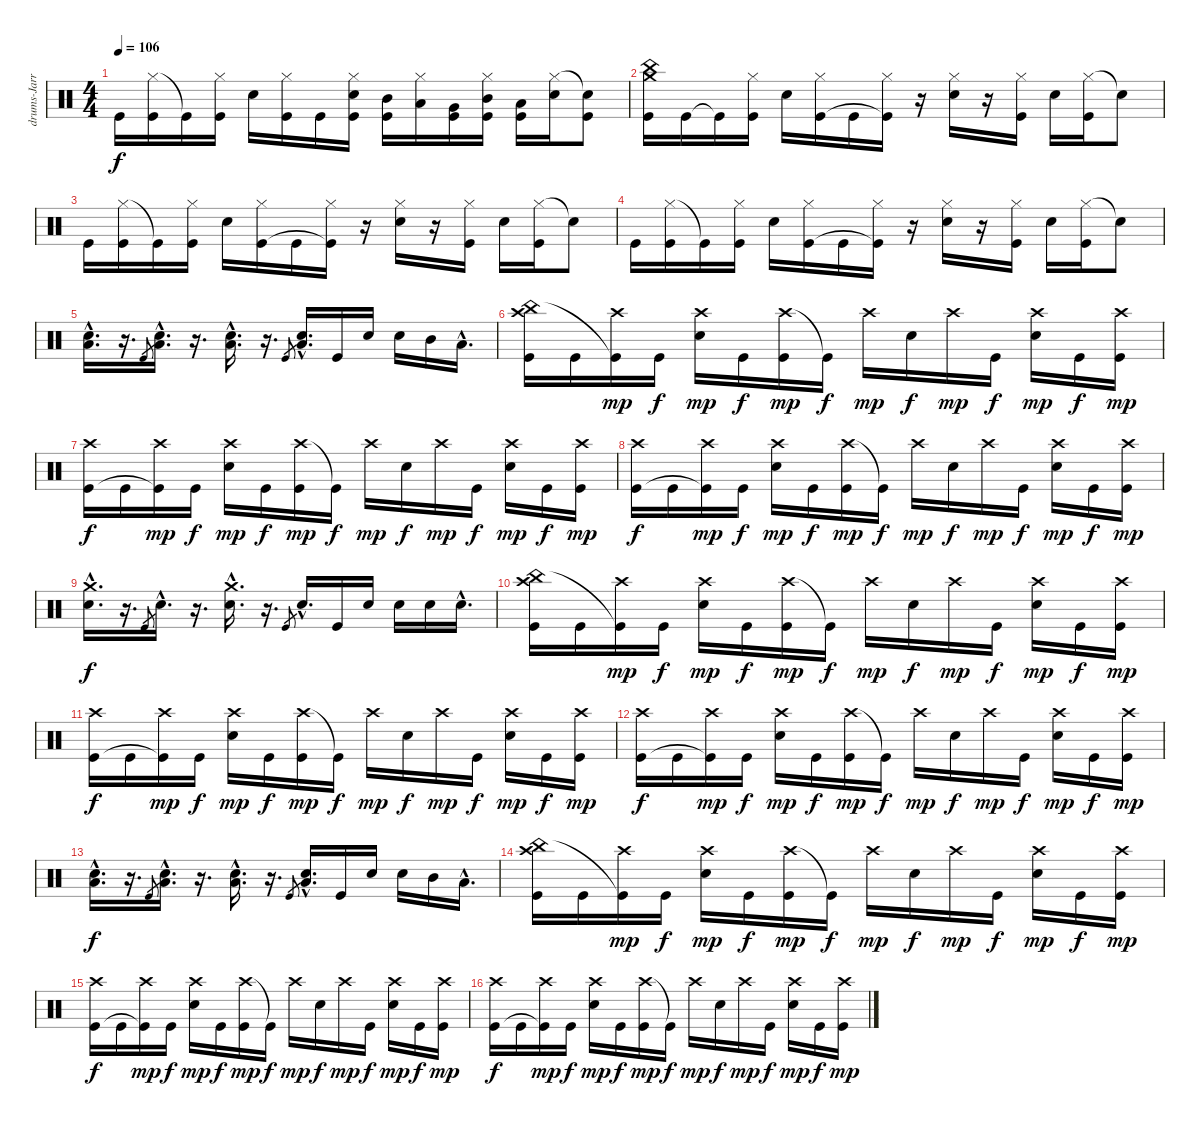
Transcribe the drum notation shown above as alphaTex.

\track ("drums-Jarrod Montague" "drums-Jarr") {instrument percussion}
\staff {score}
\articulation defaults
\ts (4 4)
\tempo 106
\clef neutral
\ks c "Kick (hit)".16{dy f}
("Hi-Hat (closed)" "Kick (hit)").16 "Kick (hit)"{t}.16 ("Hi-Hat (closed)" "Kick (hit)").16 "Snare (hit) 2".16 ("Hi-Hat (closed)" "Kick (hit)").16 "Kick (hit)".16 ("Hi-Hat (closed)" "Snare (hit) 2" "Kick (hit)"{t}).16 ("Mid Tom (hit)" "Kick (hit)").16 ("Hi-Hat (closed)" "Low Tom (hit)").16 ("Very Low Tom (hit)" "Kick (hit)").16 ("Hi-Hat (closed)" "Mid Tom (hit)" "Kick (hit)").16 ("Low Tom (hit)" "Kick (hit)").16 ("Hi-Hat (closed)" "Snare (hit) 2").16 ("Snare (hit)"{t} "Kick (hit)").8 |
("Crash medium (hit)" "China (hit)" "Kick (hit)").16 "Kick (hit)".16 "Kick (hit)"{t}.16 ("Hi-Hat (closed)" "Kick (hit)").16 "Snare (hit) 2".16 ("Hi-Hat (closed)" "Kick (hit)").16 "Kick (hit)".16 ("Hi-Hat (closed)" "Kick (hit)"{t}).16 r.16 ("Hi-Hat (closed)" "Snare (hit) 2").16 r.16 ("Hi-Hat (closed)" "Kick (hit)").16 "Snare (hit) 2".16 ("Hi-Hat (closed)" "Kick (hit)").16 "Snare (hit)"{t}.8 |
"Kick (hit)".16 ("Hi-Hat (closed)" "Kick (hit)").16 "Kick (hit)"{t}.16 ("Hi-Hat (closed)" "Kick (hit)").16 "Snare (hit) 2".16 ("Hi-Hat (closed)" "Kick (hit)").16 "Kick (hit)".16 ("Hi-Hat (closed)" "Kick (hit)"{t}).16 r.16 ("Hi-Hat (closed)" "Snare (hit) 2").16 r.16 ("Hi-Hat (closed)" "Kick (hit)").16 "Snare (hit) 2".16 ("Hi-Hat (closed)" "Kick (hit)").16 "Snare (hit)"{t}.8 |
"Kick (hit)".16 ("Hi-Hat (closed)" "Kick (hit)").16 "Kick (hit)"{t}.16 ("Hi-Hat (closed)" "Kick (hit)").16 "Snare (hit) 2".16 ("Hi-Hat (closed)" "Kick (hit)").16 "Kick (hit)".16 ("Hi-Hat (closed)" "Kick (hit)"{t}).16 r.16 ("Hi-Hat (closed)" "Snare (hit) 2").16 r.16 ("Hi-Hat (closed)" "Kick (hit)").16 "Snare (hit) 2".16 ("Hi-Hat (closed)" "Kick (hit)").16 "Snare (hit)"{t}.8 |
("Snare (hit) 2"{hac} "Low Floor Tom (hit)"{hac}).16{d} r.16{d} "Kick (hit)".8{gr} ("Snare (hit) 2"{hac} "Low Floor Tom (hit)"{hac}).16{d} r.16{d} ("Snare (hit) 2"{hac} "Low Floor Tom (hit)"{hac}).16{d} r.16{d} "Kick (hit)".8{gr} ("Snare (hit) 2"{hac} "Low Floor Tom (hit)"{hac}).16{d} "Kick (hit)".16 "Snare (hit) 2".16 "Snare (hit) 2".16 "Mid Tom (hit)".16 "Low Tom (hit)"{hac}.16{d} |
("Crash high (hit)" "China (hit)" "Kick (hit)").16 "Kick (hit)".16 ("Crash high (hit)" "Kick (hit)"{t}).16{dy mp} "Kick (hit)".16{dy f} ("Crash high (hit)" "Snare (hit) 2").16{dy mp} "Kick (hit)".16{dy f} ("Crash high (hit)" "Kick (hit)").16{dy mp} "Kick (hit)"{t}.16{dy f} "Crash high (hit)".16{dy mp} "Snare (hit) 2".16{dy f} "Crash high (hit)".16{dy mp} "Kick (hit)".16{dy f} ("Crash high (hit)" "Snare (hit) 2").16{dy mp} "Kick (hit)".16{dy f} ("Crash high (hit)" "Kick (hit)").16{dy mp} |
("Crash high (hit)" "Kick (hit)").16{dy f} "Kick (hit)".16 ("Crash high (hit)" "Kick (hit)"{t}).16{dy mp} "Kick (hit)".16{dy f} ("Crash high (hit)" "Snare (hit) 2").16{dy mp} "Kick (hit)".16{dy f} ("Crash high (hit)" "Kick (hit)").16{dy mp} "Kick (hit)"{t}.16{dy f} "Crash high (hit)".16{dy mp} "Snare (hit) 2".16{dy f} "Crash high (hit)".16{dy mp} "Kick (hit)".16{dy f} ("Crash high (hit)" "Snare (hit) 2").16{dy mp} "Kick (hit)".16{dy f} ("Crash high (hit)" "Kick (hit)").16{dy mp} |
("Crash high (hit)" "Kick (hit)").16{dy f} "Kick (hit)".16 ("Crash high (hit)" "Kick (hit)"{t}).16{dy mp} "Kick (hit)".16{dy f} ("Crash high (hit)" "Snare (hit) 2").16{dy mp} "Kick (hit)".16{dy f} ("Crash high (hit)" "Kick (hit)").16{dy mp} "Kick (hit)"{t}.16{dy f} "Crash high (hit)".16{dy mp} "Snare (hit) 2".16{dy f} "Crash high (hit)".16{dy mp} "Kick (hit)".16{dy f} ("Crash high (hit)" "Snare (hit) 2").16{dy mp} "Kick (hit)".16{dy f} ("Crash high (hit)" "Kick (hit)").16{dy mp} |
("Crash medium (hit)"{hac} "Snare (hit) 2"{hac}).16{d dy f} r.16{d} "Kick (hit)".8{gr} "Snare (hit) 2"{hac}.16{d} r.16{d} ("Crash medium (hit)"{hac} "Snare (hit) 2"{hac}).16{d} r.16{d} "Kick (hit)".8{gr} "Snare (hit) 2"{hac}.16{d} "Kick (hit)".16 "Snare (hit) 2".16 "Snare (hit) 2".16 "Snare (hit) 2".16 "Snare (hit) 2"{hac}.16{d} |
("Crash high (hit)" "China (hit)" "Kick (hit)").16 "Kick (hit)".16 ("Crash high (hit)" "Kick (hit)"{t}).16{dy mp} "Kick (hit)".16{dy f} ("Crash high (hit)" "Snare (hit) 2").16{dy mp} "Kick (hit)".16{dy f} ("Crash high (hit)" "Kick (hit)").16{dy mp} "Kick (hit)"{t}.16{dy f} "Crash high (hit)".16{dy mp} "Snare (hit) 2".16{dy f} "Crash high (hit)".16{dy mp} "Kick (hit)".16{dy f} ("Crash high (hit)" "Snare (hit) 2").16{dy mp} "Kick (hit)".16{dy f} ("Crash high (hit)" "Kick (hit)").16{dy mp} |
("Crash high (hit)" "Kick (hit)").16{dy f} "Kick (hit)".16 ("Crash high (hit)" "Kick (hit)"{t}).16{dy mp} "Kick (hit)".16{dy f} ("Crash high (hit)" "Snare (hit) 2").16{dy mp} "Kick (hit)".16{dy f} ("Crash high (hit)" "Kick (hit)").16{dy mp} "Kick (hit)"{t}.16{dy f} "Crash high (hit)".16{dy mp} "Snare (hit) 2".16{dy f} "Crash high (hit)".16{dy mp} "Kick (hit)".16{dy f} ("Crash high (hit)" "Snare (hit) 2").16{dy mp} "Kick (hit)".16{dy f} ("Crash high (hit)" "Kick (hit)").16{dy mp} |
("Crash high (hit)" "Kick (hit)").16{dy f} "Kick (hit)".16 ("Crash high (hit)" "Kick (hit)"{t}).16{dy mp} "Kick (hit)".16{dy f} ("Crash high (hit)" "Snare (hit) 2").16{dy mp} "Kick (hit)".16{dy f} ("Crash high (hit)" "Kick (hit)").16{dy mp} "Kick (hit)"{t}.16{dy f} "Crash high (hit)".16{dy mp} "Snare (hit) 2".16{dy f} "Crash high (hit)".16{dy mp} "Kick (hit)".16{dy f} ("Crash high (hit)" "Snare (hit) 2").16{dy mp} "Kick (hit)".16{dy f} ("Crash high (hit)" "Kick (hit)").16{dy mp} |
("Snare (hit) 2"{hac} "Low Floor Tom (hit)"{hac}).16{d dy f} r.16{d} "Kick (hit)".8{gr} ("Snare (hit) 2"{hac} "Low Floor Tom (hit)"{hac}).16{d} r.16{d} ("Snare (hit) 2"{hac} "Low Floor Tom (hit)"{hac}).16{d} r.16{d} "Kick (hit)".8{gr} ("Snare (hit) 2"{hac} "Low Floor Tom (hit)"{hac}).16{d} "Kick (hit)".16 "Snare (hit) 2".16 "Snare (hit) 2".16 "Mid Tom (hit)".16 "Low Tom (hit)"{hac}.16{d} |
("Crash high (hit)" "China (hit)" "Kick (hit)").16 "Kick (hit)".16 ("Crash high (hit)" "Kick (hit)"{t}).16{dy mp} "Kick (hit)".16{dy f} ("Crash high (hit)" "Snare (hit) 2").16{dy mp} "Kick (hit)".16{dy f} ("Crash high (hit)" "Kick (hit)").16{dy mp} "Kick (hit)"{t}.16{dy f} "Crash high (hit)".16{dy mp} "Snare (hit) 2".16{dy f} "Crash high (hit)".16{dy mp} "Kick (hit)".16{dy f} ("Crash high (hit)" "Snare (hit) 2").16{dy mp} "Kick (hit)".16{dy f} ("Crash high (hit)" "Kick (hit)").16{dy mp} |
("Crash high (hit)" "Kick (hit)").16{dy f} "Kick (hit)".16 ("Crash high (hit)" "Kick (hit)"{t}).16{dy mp} "Kick (hit)".16{dy f} ("Crash high (hit)" "Snare (hit) 2").16{dy mp} "Kick (hit)".16{dy f} ("Crash high (hit)" "Kick (hit)").16{dy mp} "Kick (hit)"{t}.16{dy f} "Crash high (hit)".16{dy mp} "Snare (hit) 2".16{dy f} "Crash high (hit)".16{dy mp} "Kick (hit)".16{dy f} ("Crash high (hit)" "Snare (hit) 2").16{dy mp} "Kick (hit)".16{dy f} ("Crash high (hit)" "Kick (hit)").16{dy mp} |
("Crash high (hit)" "Kick (hit)").16{dy f} "Kick (hit)".16 ("Crash high (hit)" "Kick (hit)"{t}).16{dy mp} "Kick (hit)".16{dy f} ("Crash high (hit)" "Snare (hit) 2").16{dy mp} "Kick (hit)".16{dy f} ("Crash high (hit)" "Kick (hit)").16{dy mp} "Kick (hit)"{t}.16{dy f} "Crash high (hit)".16{dy mp} "Snare (hit) 2".16{dy f} "Crash high (hit)".16{dy mp} "Kick (hit)".16{dy f} ("Crash high (hit)" "Snare (hit) 2").16{dy mp} "Kick (hit)".16{dy f} ("Crash high (hit)" "Kick (hit)").16{dy mp}
